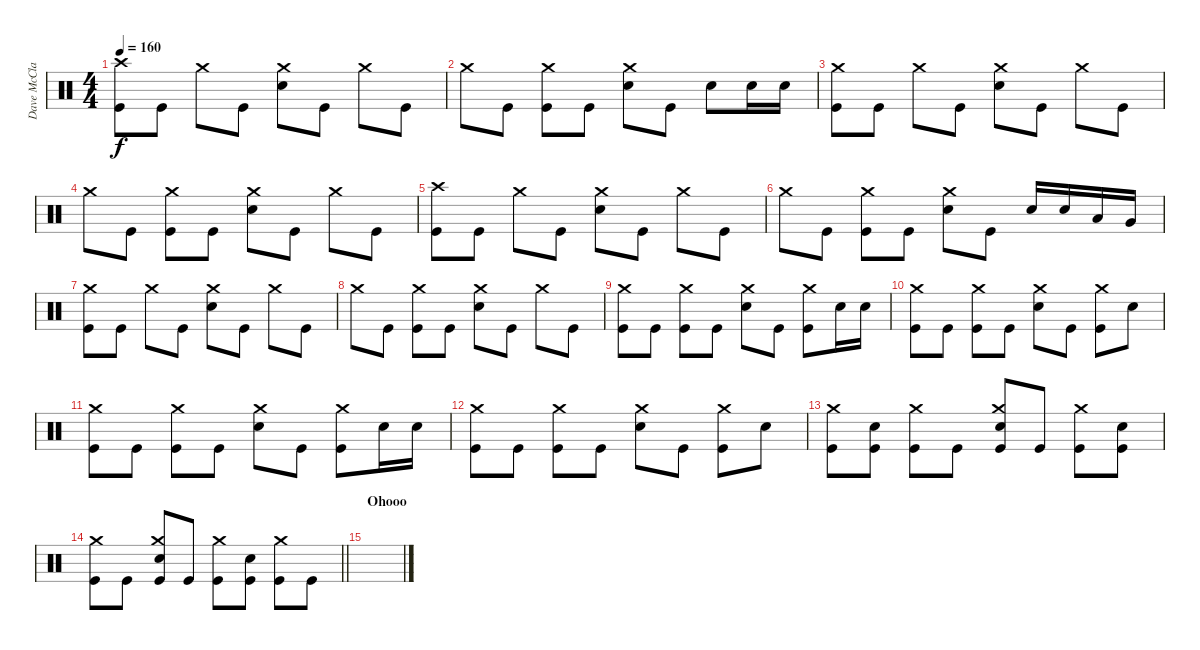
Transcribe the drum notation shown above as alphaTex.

\track ("Dave McClain" "Dave McCla") {instrument percussion}
\staff {score}
\articulation defaults
\ts (4 4)
\tempo 160
\clef neutral
\ks c
("Crash high (hit)" "Kick (hit)").8{dy f} "Kick (hit)".8 "Crash medium (hit)".8 "Kick (hit)".8 ("Crash medium (hit)" "Electric Snare (hit)").8 "Kick (hit)".8 "Crash medium (hit)".8 "Kick (hit)".8 |
"Crash medium (hit)".8 "Kick (hit)".8 ("Crash medium (hit)" "Kick (hit)").8 "Kick (hit)".8 ("Crash medium (hit)" "Electric Snare (hit)").8 "Kick (hit)".8 "Electric Snare (hit)".8 "Electric Snare (hit)".16 "Electric Snare (hit)".16 |
("Crash medium (hit)" "Kick (hit)").8 "Kick (hit)".8 "Crash medium (hit)".8 "Kick (hit)".8 ("Crash medium (hit)" "Electric Snare (hit)").8 "Kick (hit)".8 "Crash medium (hit)".8 "Kick (hit)".8 |
"Crash medium (hit)".8 "Kick (hit)".8 ("Crash medium (hit)" "Kick (hit)").8 "Kick (hit)".8 ("Crash medium (hit)" "Electric Snare (hit)").8 "Kick (hit)".8 "Crash medium (hit)".8 "Kick (hit)".8 |
("Crash high (hit)" "Kick (hit)").8 "Kick (hit)".8 "Crash medium (hit)".8 "Kick (hit)".8 ("Crash medium (hit)" "Electric Snare (hit)").8 "Kick (hit)".8 "Crash medium (hit)".8 "Kick (hit)".8 |
"Crash medium (hit)".8 "Kick (hit)".8 ("Crash medium (hit)" "Kick (hit)").8 "Kick (hit)".8 ("Crash medium (hit)" "Electric Snare (hit)").8 "Kick (hit)".8 "Electric Snare (hit)".16 "Electric Snare (hit)".16 "Low Tom (hit)".16 "Very Low Tom (hit)".16 |
("Crash medium (hit)" "Kick (hit)").8 "Kick (hit)".8 "Crash medium (hit)".8 "Kick (hit)".8 ("Crash medium (hit)" "Electric Snare (hit)").8 "Kick (hit)".8 "Crash medium (hit)".8 "Kick (hit)".8 |
"Crash medium (hit)".8 "Kick (hit)".8 ("Crash medium (hit)" "Kick (hit)").8 "Kick (hit)".8 ("Crash medium (hit)" "Electric Snare (hit)").8 "Kick (hit)".8 "Crash medium (hit)".8 "Kick (hit)".8 |
("Crash medium (hit)" "Kick (hit)").8 "Kick (hit)".8 ("Crash medium (hit)" "Kick (hit)").8 "Kick (hit)".8 ("Crash medium (hit)" "Electric Snare (hit)").8 "Kick (hit)".8 ("Crash medium (hit)" "Kick (hit)").8 "Electric Snare (hit)".16 "Electric Snare (hit)".16 |
("Crash medium (hit)" "Kick (hit)").8 "Kick (hit)".8 ("Crash medium (hit)" "Kick (hit)").8 "Kick (hit)".8 ("Crash medium (hit)" "Electric Snare (hit)").8 "Kick (hit)".8 ("Crash medium (hit)" "Kick (hit)").8 "Electric Snare (hit)".8 |
("Crash medium (hit)" "Kick (hit)").8 "Kick (hit)".8 ("Crash medium (hit)" "Kick (hit)").8 "Kick (hit)".8 ("Crash medium (hit)" "Electric Snare (hit)").8 "Kick (hit)".8 ("Crash medium (hit)" "Kick (hit)").8 "Electric Snare (hit)".16 "Electric Snare (hit)".16 |
("Crash medium (hit)" "Kick (hit)").8 "Kick (hit)".8 ("Crash medium (hit)" "Kick (hit)").8 "Kick (hit)".8 ("Crash medium (hit)" "Electric Snare (hit)").8 "Kick (hit)".8 ("Crash medium (hit)" "Kick (hit)").8 "Electric Snare (hit)".8 |
("Crash medium (hit)" "Kick (hit)").8 ("Electric Snare (hit)" "Kick (hit)").8 ("Crash medium (hit)" "Kick (hit)").8 "Kick (hit)".8 ("Crash medium (hit)" "Electric Snare (hit)" "Kick (hit)").8 "Kick (hit)".8 ("Crash medium (hit)" "Kick (hit)").8 ("Electric Snare (hit)" "Kick (hit)").8 |
\barLineRight lightlight
("Crash medium (hit)" "Kick (hit)").8 "Kick (hit)".8 ("Crash medium (hit)" "Electric Snare (hit)" "Kick (hit)").8 "Kick (hit)".8 ("Crash medium (hit)" "Kick (hit)").8 ("Electric Snare (hit)" "Kick (hit)").8 ("Crash medium (hit)" "Kick (hit)").8 "Kick (hit)".8 |
\section ("" "Ohooo")
